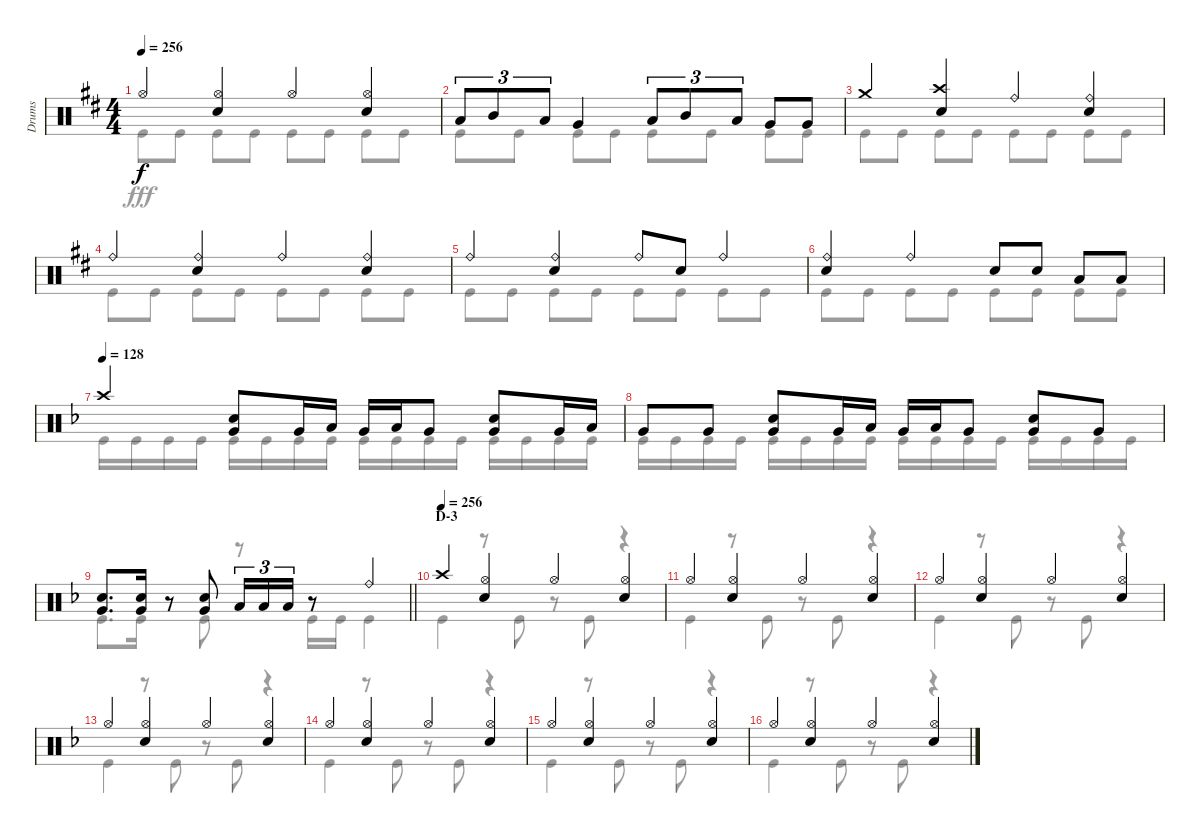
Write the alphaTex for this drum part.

\track ("Drums" "Drums") {instrument percussion}
\staff {score}
\articulation defaults
\voice
\ts (4 4)
\tempo 256
\clef neutral
\ks d "Hi-Hat (open)".4{dy f}
("Hi-Hat (open)" "Snare (hit) 2").4 "Hi-Hat (open)".4 ("Hi-Hat (open)" "Snare (hit) 2").4 |
"Low Tom (hit)".8{tu (3 2)} "Mid Tom (hit)".8{tu (3 2)} "Low Tom (hit)".8{tu (3 2)} "Very Low Tom (hit)".4 "Low Tom (hit)".8{tu (3 2)} "Mid Tom (hit)".8{tu (3 2)} "Low Tom (hit)".8{tu (3 2)} "Very Low Tom (hit)".8 "Very Low Tom (hit)".8 |
"Crash medium (hit)".4 ("Crash high (hit)" "Snare (hit) 2").4 "Ride (bell)".4 ("Ride (bell)" "Snare (hit) 2").4 |
"Ride (bell)".4 ("Ride (bell)" "Snare (hit) 2").4 "Ride (bell)".4 ("Ride (bell)" "Snare (hit) 2").4 |
"Ride (bell)".4 ("Ride (bell)" "Snare (hit) 2").4 "Ride (bell)".8 "Snare (hit) 2".8 "Ride (bell)".4 |
("Ride (bell)" "Snare (hit) 2").4 "Ride (bell)".4 "Snare (hit) 2".8 "Snare (hit) 2".8 "Low Tom (hit)".8 "Low Tom (hit)".8 |
\tempo 128
\ks f "Crash high (hit)".4
("Snare (hit) 2" "Very Low Tom (hit)").8 "Very Low Tom (hit)".16 "Low Tom (hit)".16 "Very Low Tom (hit)".16 "Low Tom (hit)".16 "Very Low Tom (hit)".8 ("Snare (hit) 2" "Very Low Tom (hit)").8 "Very Low Tom (hit)".16 "Low Tom (hit)".16 |
"Very Low Tom (hit)".8 "Very Low Tom (hit)".8 ("Snare (hit) 2" "Very Low Tom (hit)").8 "Very Low Tom (hit)".16 "Low Tom (hit)".16 "Very Low Tom (hit)".16 "Low Tom (hit)".16 "Very Low Tom (hit)".8 ("Snare (hit) 2" "Very Low Tom (hit)").8 "Very Low Tom (hit)".8 |
\barLineRight lightlight
("Snare (hit) 2" "Very Low Tom (hit)").8{d} ("Snare (hit) 2" "Very Low Tom (hit)").16 r.8 ("Snare (hit) 2" "Very Low Tom (hit)").8 "Low Tom (hit)".16{tu (3 2)} "Low Tom (hit)".16{tu (3 2)} "Low Tom (hit)".16{tu (3 2)} r.8 "Ride (bell)".4 |
\section ("" "D-3")
\tempo (256)
"Crash high (hit)".4 ("Hi-Hat (open)" "Snare (hit) 2").4 "Hi-Hat (open)".4 ("Hi-Hat (open)" "Snare (hit) 2").4 |
"Hi-Hat (open)".4 ("Hi-Hat (open)" "Snare (hit) 2").4 "Hi-Hat (open)".4 ("Hi-Hat (open)" "Snare (hit) 2").4 |
"Hi-Hat (open)".4 ("Hi-Hat (open)" "Snare (hit) 2").4 "Hi-Hat (open)".4 ("Hi-Hat (open)" "Snare (hit) 2").4 |
"Hi-Hat (open)".4 ("Hi-Hat (open)" "Snare (hit) 2").4 "Hi-Hat (open)".4 ("Hi-Hat (open)" "Snare (hit) 2").4 |
"Hi-Hat (open)".4 ("Hi-Hat (open)" "Snare (hit) 2").4 "Hi-Hat (open)".4 ("Hi-Hat (open)" "Snare (hit) 2").4 |
"Hi-Hat (open)".4 ("Hi-Hat (open)" "Snare (hit) 2").4 "Hi-Hat (open)".4 ("Hi-Hat (open)" "Snare (hit) 2").4 |
"Hi-Hat (open)".4 ("Hi-Hat (open)" "Snare (hit) 2").4 "Hi-Hat (open)".4 ("Hi-Hat (open)" "Snare (hit) 2").4
\voice
\clef neutral
\ottava regular
\simile none
\ks d "Kick (hit)".8{dy fff} "Kick (hit)".8 "Kick (hit)".8 "Kick (hit)".8 "Kick (hit)".8 "Kick (hit)".8 "Kick (hit)".8 "Kick (hit)".8
|
"Kick (hit)".8 "Kick (hit)".8 "Kick (hit)".8 "Kick (hit)".8 "Kick (hit)".8 "Kick (hit)".8 "Kick (hit)".8 "Kick (hit)".8 |
"Kick (hit)".8 "Kick (hit)".8 "Kick (hit)".8 "Kick (hit)".8 "Kick (hit)".8 "Kick (hit)".8 "Kick (hit)".8 "Kick (hit)".8 |
"Kick (hit)".8 "Kick (hit)".8 "Kick (hit)".8 "Kick (hit)".8 "Kick (hit)".8 "Kick (hit)".8 "Kick (hit)".8 "Kick (hit)".8 |
"Kick (hit)".8 "Kick (hit)".8 "Kick (hit)".8 "Kick (hit)".8 "Kick (hit)".8 "Kick (hit)".8 "Kick (hit)".8 "Kick (hit)".8 |
"Kick (hit)".8 "Kick (hit)".8 "Kick (hit)".8 "Kick (hit)".8 "Kick (hit)".8 "Kick (hit)".8 "Kick (hit)".8 "Kick (hit)".8 |
\ks f "Kick (hit)".16 "Kick (hit)".16 "Kick (hit)".16 "Kick (hit)".16 "Kick (hit)".16 "Kick (hit)".16 "Kick (hit)".16 "Kick (hit)".16 "Kick (hit)".16 "Kick (hit)".16 "Kick (hit)".16 "Kick (hit)".16 "Kick (hit)".16 "Kick (hit)".16 "Kick (hit)".16 "Kick (hit)".16
|
"Kick (hit)".16 "Kick (hit)".16 "Kick (hit)".16 "Kick (hit)".16 "Kick (hit)".16 "Kick (hit)".16 "Kick (hit)".16 "Kick (hit)".16 "Kick (hit)".16 "Kick (hit)".16 "Kick (hit)".16 "Kick (hit)".16 "Kick (hit)".16 "Kick (hit)".16 "Kick (hit)".16 "Kick (hit)".16 |
\barLineRight lightlight "Kick (hit)".8{d} "Kick (hit)".16
r.8 "Kick (hit)".8 r.8 "Kick (hit)".16 "Kick (hit)".16 "Kick (hit)".4 |
"Kick (hit)".4 r.8 "Kick (hit)".8 r.8 "Kick (hit)".8 r.4 |
"Kick (hit)".4 r.8 "Kick (hit)".8 r.8 "Kick (hit)".8 r.4 |
"Kick (hit)".4 r.8 "Kick (hit)".8 r.8 "Kick (hit)".8 r.4 |
"Kick (hit)".4 r.8 "Kick (hit)".8 r.8 "Kick (hit)".8 r.4 |
"Kick (hit)".4 r.8 "Kick (hit)".8 r.8 "Kick (hit)".8 r.4 |
"Kick (hit)".4 r.8 "Kick (hit)".8 r.8 "Kick (hit)".8 r.4 |
"Kick (hit)".4 r.8 "Kick (hit)".8 r.8 "Kick (hit)".8 r.4
